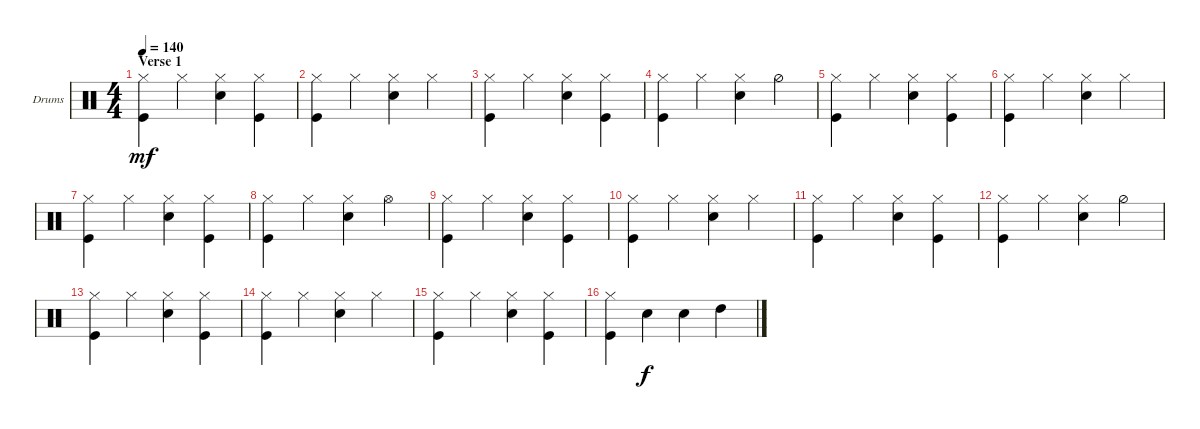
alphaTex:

\bracketExtendMode groupsimilarinstruments
\firstSystemTrackNameOrientation horizontal
\otherSystemsTrackNameOrientation horizontal
\track ("Drumkit (Ray Cooper)" "Drums") {instrument percussion}
\staff {score}
\articulation defaults
\ts (4 4)
\section ("" "Verse 1")
\tempo 140
\clef neutral
\scale
1.07945
\ks c
("Kick (hit)" "Hi-Hat (closed)").4{dy mf} "Hi-Hat (closed)".4 ("Hi-Hat (closed)" "Snare (hit) 2").4 ("Hi-Hat (closed)" "Kick (hit)").4 |
\scale
0.973518 ("Hi-Hat (closed)" "Kick (hit)").4 "Hi-Hat (closed)".4 ("Hi-Hat (closed)" "Snare (hit) 2").4 "Hi-Hat (closed)".4 |
\scale
0.973518 ("Kick (hit)" "Hi-Hat (closed)").4 "Hi-Hat (closed)".4 ("Hi-Hat (closed)" "Snare (hit) 2").4 ("Hi-Hat (closed)" "Kick (hit)").4 |
\scale
0.973518 ("Hi-Hat (closed)" "Kick (hit)").4 "Hi-Hat (closed)".4 ("Hi-Hat (closed)" "Snare (hit) 2").4 "Hi-Hat (half)".4 |
\scale
1.07945 ("Kick (hit)" "Hi-Hat (closed)").4 "Hi-Hat (closed)".4 ("Hi-Hat (closed)" "Snare (hit) 2").4 ("Hi-Hat (closed)" "Kick (hit)").4 |
\scale
0.973518 ("Hi-Hat (closed)" "Kick (hit)").4 "Hi-Hat (closed)".4 ("Hi-Hat (closed)" "Snare (hit) 2").4 "Hi-Hat (closed)".4 |
\scale
0.973518 ("Kick (hit)" "Hi-Hat (closed)").4 "Hi-Hat (closed)".4 ("Hi-Hat (closed)" "Snare (hit) 2").4 ("Hi-Hat (closed)" "Kick (hit)").4 |
\scale
0.973518 ("Hi-Hat (closed)" "Kick (hit)").4 "Hi-Hat (closed)".4 ("Hi-Hat (closed)" "Snare (hit) 2").4 "Hi-Hat (open)".4 |
\scale
1.07945 ("Kick (hit)" "Hi-Hat (closed)").4 "Hi-Hat (closed)".4 ("Hi-Hat (closed)" "Snare (hit) 2").4 ("Hi-Hat (closed)" "Kick (hit)").4 |
\scale
0.973518 ("Hi-Hat (closed)" "Kick (hit)").4 "Hi-Hat (closed)".4 ("Hi-Hat (closed)" "Snare (hit) 2").4 "Hi-Hat (closed)".4 |
\scale
0.973518 ("Kick (hit)" "Hi-Hat (closed)").4 "Hi-Hat (closed)".4 ("Hi-Hat (closed)" "Snare (hit) 2").4 ("Hi-Hat (closed)" "Kick (hit)").4 |
\scale
0.973518 ("Hi-Hat (closed)" "Kick (hit)").4 "Hi-Hat (closed)".4 ("Hi-Hat (closed)" "Snare (hit) 2").4 "Hi-Hat (half)".4 |
\scale
1.07945 ("Kick (hit)" "Hi-Hat (closed)").4 "Hi-Hat (closed)".4 ("Hi-Hat (closed)" "Snare (hit) 2").4 ("Hi-Hat (closed)" "Kick (hit)").4 |
\scale
0.973518 ("Hi-Hat (closed)" "Kick (hit)").4 "Hi-Hat (closed)".4 ("Hi-Hat (closed)" "Snare (hit) 2").4 "Hi-Hat (closed)".4 |
\scale
0.973518 ("Kick (hit)" "Hi-Hat (closed)").4 "Hi-Hat (closed)".4 ("Hi-Hat (closed)" "Snare (hit) 2").4 ("Hi-Hat (closed)" "Kick (hit)").4 |
\scale
0.973518 ("Hi-Hat (closed)" "Kick (hit)").4 "Snare (hit) 2".4{dy f} "Snare (hit) 2".4 "High Tom (hit)".4
